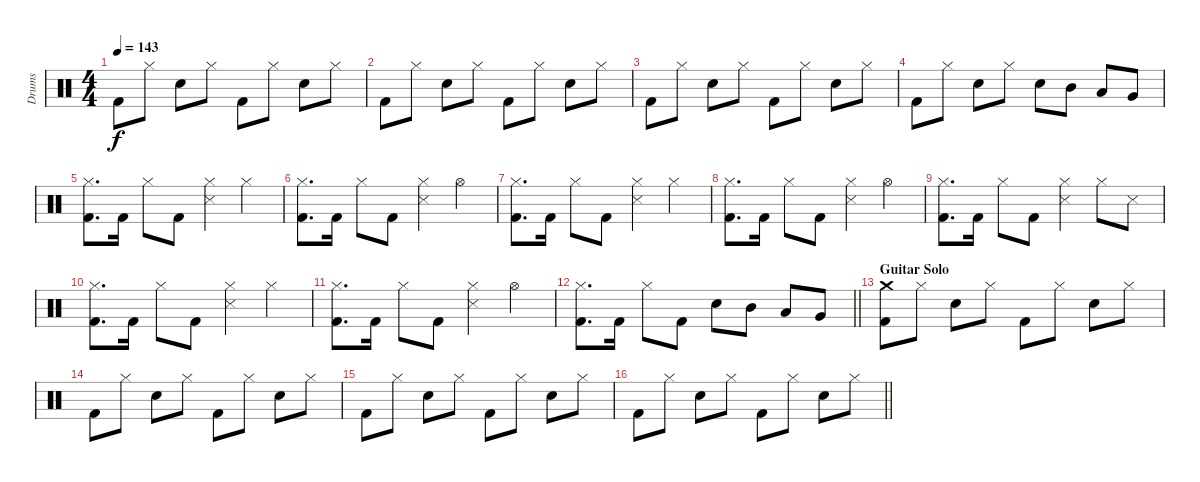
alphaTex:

\track ("Drums" "Drums") {instrument percussion}
\staff {score}
\articulation defaults
\ts (4 4)
\tempo 143
\clef neutral
\ks c "Kick (hit) 2".8{dy f} "Hi-Hat (closed)".8 "Snare (hit) 2".8 "Hi-Hat (closed)".8 "Kick (hit) 2".8 "Hi-Hat (closed)".8 "Snare (hit) 2".8 "Hi-Hat (closed)".8
|
"Kick (hit) 2".8 "Hi-Hat (closed)".8 "Snare (hit) 2".8 "Hi-Hat (closed)".8 "Kick (hit) 2".8 "Hi-Hat (closed)".8 "Snare (hit) 2".8 "Hi-Hat (closed)".8 |
"Kick (hit) 2".8 "Hi-Hat (closed)".8 "Snare (hit) 2".8 "Hi-Hat (closed)".8 "Kick (hit) 2".8 "Hi-Hat (closed)".8 "Snare (hit) 2".8 "Hi-Hat (closed)".8 |
"Kick (hit) 2".8 "Hi-Hat (closed)".8 "Snare (hit) 2".8 "Hi-Hat (closed)".8 "Snare (hit) 2".8 "Mid Tom (hit)".8 "Low Tom (hit)".8 "Very Low Tom (hit)".8 |
("Hi-Hat (closed)" "Kick (hit) 2").8{d} "Kick (hit) 2".16 "Hi-Hat (closed)".8 "Kick (hit) 2".8 ("Hi-Hat (closed)" "Snare (side stick) 3").4 "Hi-Hat (closed)".4 |
("Hi-Hat (closed)" "Kick (hit) 2").8{d} "Kick (hit) 2".16 "Hi-Hat (closed)".8 "Kick (hit) 2".8 ("Hi-Hat (closed)" "Snare (side stick) 3").4 "Hi-Hat (open)".4 |
("Hi-Hat (closed)" "Kick (hit) 2").8{d} "Kick (hit) 2".16 "Hi-Hat (closed)".8 "Kick (hit) 2".8 ("Hi-Hat (closed)" "Snare (side stick) 3").4 "Hi-Hat (closed)".4 |
("Hi-Hat (closed)" "Kick (hit) 2").8{d} "Kick (hit) 2".16 "Hi-Hat (closed)".8 "Kick (hit) 2".8 ("Hi-Hat (closed)" "Snare (side stick) 3").4 "Hi-Hat (open)".4 |
("Hi-Hat (closed)" "Kick (hit) 2").8{d} "Kick (hit) 2".16 "Hi-Hat (closed)".8 "Kick (hit) 2".8 ("Hi-Hat (closed)" "Snare (side stick) 3").4 "Hi-Hat (closed)".8 "Snare (side stick) 3".8 |
("Hi-Hat (closed)" "Kick (hit) 2").8{d} "Kick (hit) 2".16 "Hi-Hat (closed)".8 "Kick (hit) 2".8 ("Hi-Hat (closed)" "Snare (side stick) 3").4 "Hi-Hat (closed)".4 |
("Hi-Hat (closed)" "Kick (hit) 2").8{d} "Kick (hit) 2".16 "Hi-Hat (closed)".8 "Kick (hit) 2".8 ("Hi-Hat (closed)" "Snare (side stick) 3").4 "Hi-Hat (open)".4 |
\barLineRight lightlight
("Hi-Hat (closed)" "Kick (hit) 2").8{d} "Kick (hit) 2".16 "Hi-Hat (closed)".8 "Kick (hit) 2".8 "Snare (hit) 2".8 "Mid Tom (hit)".8 "Low Tom (hit)".8 "Very Low Tom (hit)".8 |
\section ("" "Guitar Solo")
("Crash medium (hit)" "Kick (hit) 2").8 "Hi-Hat (closed)".8 "Snare (hit) 2".8 "Hi-Hat (closed)".8 "Kick (hit) 2".8 "Hi-Hat (closed)".8 "Snare (hit) 2".8 "Hi-Hat (closed)".8 |
"Kick (hit) 2".8 "Hi-Hat (closed)".8 "Snare (hit) 2".8 "Hi-Hat (closed)".8 "Kick (hit) 2".8 "Hi-Hat (closed)".8 "Snare (hit) 2".8 "Hi-Hat (closed)".8 |
"Kick (hit) 2".8 "Hi-Hat (closed)".8 "Snare (hit) 2".8 "Hi-Hat (closed)".8 "Kick (hit) 2".8 "Hi-Hat (closed)".8 "Snare (hit) 2".8 "Hi-Hat (closed)".8 |
\barLineRight lightlight "Kick (hit) 2".8 "Hi-Hat (closed)".8 "Snare (hit) 2".8 "Hi-Hat (closed)".8 "Kick (hit) 2".8 "Hi-Hat (closed)".8 "Snare (hit) 2".8 "Hi-Hat (closed)".8
